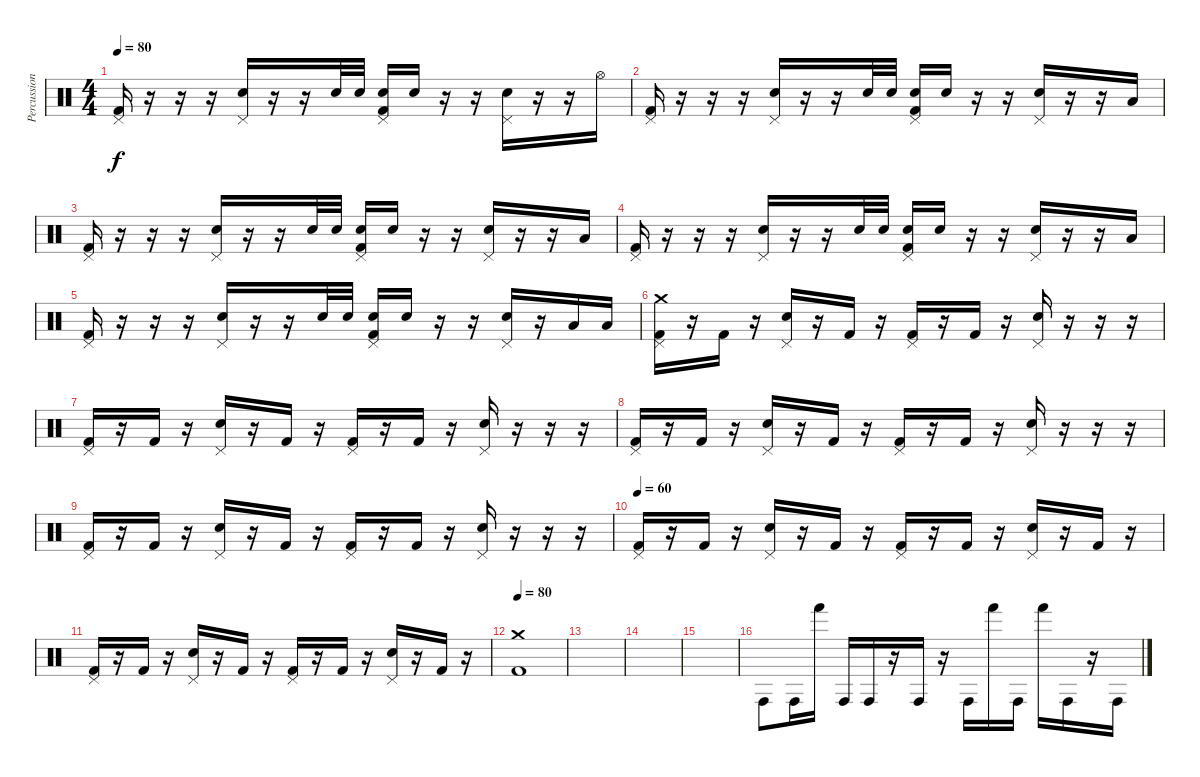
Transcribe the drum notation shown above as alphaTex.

\track ("Percussion" "Percussion") {instrument percussion}
\staff {score}
\articulation defaults
\ts (4 4)
\tempo 80
\clef neutral
\ks c
("Pedal Hi-Hat (hit)" "Kick (hit) 2").16{dy f} r.16 r.16 r.16 ("Pedal Hi-Hat (hit)" "Snare (hit) 2").16 r.16 r.16 "Snare (hit) 2".32 "Snare (hit) 2".32 ("Pedal Hi-Hat (hit)" "Snare (hit) 2" "Kick (hit) 2").16 "Snare (hit) 2".16 r.16 r.16 ("Pedal Hi-Hat (hit)" "Snare (hit) 2").16 r.16 r.16 "Hi-Hat (open)".16 |
("Pedal Hi-Hat (hit)" "Kick (hit) 2").16 r.16 r.16 r.16 ("Pedal Hi-Hat (hit)" "Snare (hit) 2").16 r.16 r.16 "Snare (hit) 2".32 "Snare (hit) 2".32 ("Pedal Hi-Hat (hit)" "Snare (hit) 2" "Kick (hit) 2").16 "Snare (hit) 2".16 r.16 r.16 ("Pedal Hi-Hat (hit)" "Snare (hit) 2").16 r.16 r.16 "Low Tom (hit)".16 |
("Pedal Hi-Hat (hit)" "Kick (hit) 2").16 r.16 r.16 r.16 ("Pedal Hi-Hat (hit)" "Snare (hit) 2").16 r.16 r.16 "Snare (hit) 2".32 "Snare (hit) 2".32 ("Pedal Hi-Hat (hit)" "Snare (hit) 2" "Kick (hit) 2").16 "Snare (hit) 2".16 r.16 r.16 ("Pedal Hi-Hat (hit)" "Snare (hit) 2").16 r.16 r.16 "Low Tom (hit)".16 |
("Pedal Hi-Hat (hit)" "Kick (hit) 2").16 r.16 r.16 r.16 ("Pedal Hi-Hat (hit)" "Snare (hit) 2").16 r.16 r.16 "Snare (hit) 2".32 "Snare (hit) 2".32 ("Pedal Hi-Hat (hit)" "Snare (hit) 2" "Kick (hit) 2").16 "Snare (hit) 2".16 r.16 r.16 ("Pedal Hi-Hat (hit)" "Snare (hit) 2").16 r.16 r.16 "Low Tom (hit)".16 |
("Pedal Hi-Hat (hit)" "Kick (hit) 2").16 r.16 r.16 r.16 ("Pedal Hi-Hat (hit)" "Snare (hit) 2").16 r.16 r.16 "Snare (hit) 2".32 "Snare (hit) 2".32 ("Pedal Hi-Hat (hit)" "Snare (hit) 2" "Kick (hit) 2").16 "Snare (hit) 2".16 r.16 r.16 ("Pedal Hi-Hat (hit)" "Snare (hit) 2").16 r.16 "Low Tom (hit)".16 "Low Tom (hit)".16 |
("Crash medium (hit)" "Pedal Hi-Hat (hit)" "Kick (hit) 2").16 r.16 "Kick (hit) 2".16 r.16 ("Pedal Hi-Hat (hit)" "Snare (hit) 2").16 r.16 "Kick (hit) 2".16 r.16 ("Pedal Hi-Hat (hit)" "Kick (hit) 2").16 r.16 "Kick (hit) 2".16 r.16 ("Pedal Hi-Hat (hit)" "Snare (hit) 2").16 r.16 r.16 r.16 |
("Pedal Hi-Hat (hit)" "Kick (hit) 2").16 r.16 "Kick (hit) 2".16 r.16 ("Pedal Hi-Hat (hit)" "Snare (hit) 2").16 r.16 "Kick (hit) 2".16 r.16 ("Pedal Hi-Hat (hit)" "Kick (hit) 2").16 r.16 "Kick (hit) 2".16 r.16 ("Pedal Hi-Hat (hit)" "Snare (hit) 2").16 r.16 r.16 r.16 |
("Pedal Hi-Hat (hit)" "Kick (hit) 2").16 r.16 "Kick (hit) 2".16 r.16 ("Pedal Hi-Hat (hit)" "Snare (hit) 2").16 r.16 "Kick (hit) 2".16 r.16 ("Pedal Hi-Hat (hit)" "Kick (hit) 2").16 r.16 "Kick (hit) 2".16 r.16 ("Pedal Hi-Hat (hit)" "Snare (hit) 2").16 r.16 r.16 r.16 |
("Pedal Hi-Hat (hit)" "Kick (hit) 2").16 r.16 "Kick (hit) 2".16 r.16 ("Pedal Hi-Hat (hit)" "Snare (hit) 2").16 r.16 "Kick (hit) 2".16 r.16 ("Pedal Hi-Hat (hit)" "Kick (hit) 2").16 r.16 "Kick (hit) 2".16 r.16 ("Pedal Hi-Hat (hit)" "Snare (hit) 2").16 r.16 r.16 r.16 |
\tempo 60
("Pedal Hi-Hat (hit)" "Kick (hit) 2").16 r.16 "Kick (hit) 2".16 r.16 ("Pedal Hi-Hat (hit)" "Snare (hit) 2").16 r.16 "Kick (hit) 2".16 r.16 ("Pedal Hi-Hat (hit)" "Kick (hit) 2").16 r.16 "Kick (hit) 2".16 r.16 ("Pedal Hi-Hat (hit)" "Snare (hit) 2").16 r.16 "Kick (hit) 2".16 r.16 |
("Pedal Hi-Hat (hit)" "Kick (hit) 2").16 r.16 "Kick (hit) 2".16 r.16 ("Pedal Hi-Hat (hit)" "Snare (hit) 2").16 r.16 "Kick (hit) 2".16 r.16 ("Pedal Hi-Hat (hit)" "Kick (hit) 2").16 r.16 "Kick (hit) 2".16 r.16 ("Pedal Hi-Hat (hit)" "Snare (hit) 2").16 r.16 "Kick (hit) 2".16 r.16 |
\tempo 80
("Crash medium (hit)" "Kick (hit) 2").1 |
|
|
|
"Conga high (hit)".8{volume 12} "Conga high (hit)".16 "Hand (hit)".16 "Conga high (hit)".16 "Conga high (hit)".16 r.16 "Conga high (hit)".16 r.16 "Conga high (hit)".16 "Hand (hit)".16 "Conga high (hit)".16 "Hand (hit)".16 "Conga high (hit)".16 r.16 "Conga high (hit)".16
